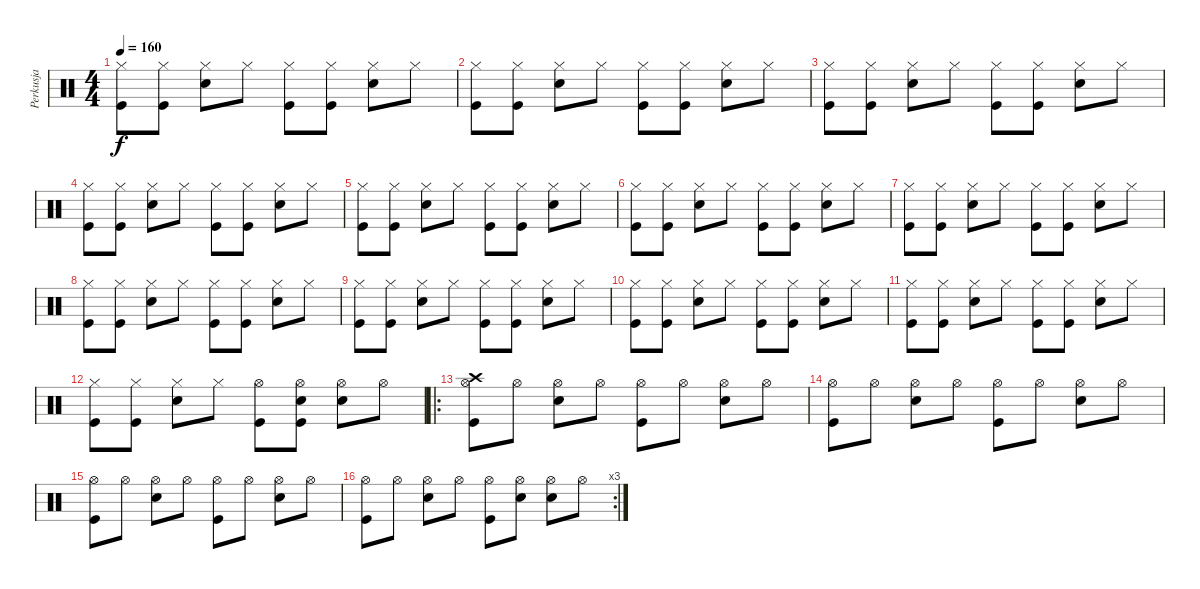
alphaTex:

\track ("Perkusja" "Perkusja") {instrument percussion}
\staff {score}
\articulation defaults
\ts (4 4)
\tempo 160
\clef neutral
\ks c
("Hi-Hat (closed)" "Kick (hit)").8{dy f} ("Hi-Hat (closed)" "Kick (hit)").8 ("Hi-Hat (closed)" "Electric Snare (hit)").8 "Hi-Hat (closed)".8 ("Hi-Hat (closed)" "Kick (hit)").8 ("Hi-Hat (closed)" "Kick (hit)").8 ("Hi-Hat (closed)" "Electric Snare (hit)").8 "Hi-Hat (closed)".8 |
("Hi-Hat (closed)" "Kick (hit)").8 ("Hi-Hat (closed)" "Kick (hit)").8 ("Hi-Hat (closed)" "Electric Snare (hit)").8 "Hi-Hat (closed)".8 ("Hi-Hat (closed)" "Kick (hit)").8 ("Hi-Hat (closed)" "Kick (hit)").8 ("Hi-Hat (closed)" "Electric Snare (hit)").8 "Hi-Hat (closed)".8 |
("Hi-Hat (closed)" "Kick (hit)").8 ("Hi-Hat (closed)" "Kick (hit)").8 ("Hi-Hat (closed)" "Electric Snare (hit)").8 "Hi-Hat (closed)".8 ("Hi-Hat (closed)" "Kick (hit)").8 ("Hi-Hat (closed)" "Kick (hit)").8 ("Hi-Hat (closed)" "Electric Snare (hit)").8 "Hi-Hat (closed)".8 |
("Hi-Hat (closed)" "Kick (hit)").8 ("Hi-Hat (closed)" "Kick (hit)").8 ("Hi-Hat (closed)" "Electric Snare (hit)").8 "Hi-Hat (closed)".8 ("Hi-Hat (closed)" "Kick (hit)").8 ("Hi-Hat (closed)" "Kick (hit)").8 ("Hi-Hat (closed)" "Electric Snare (hit)").8 "Hi-Hat (closed)".8 |
("Hi-Hat (closed)" "Kick (hit)").8 ("Hi-Hat (closed)" "Kick (hit)").8 ("Hi-Hat (closed)" "Electric Snare (hit)").8 "Hi-Hat (closed)".8 ("Hi-Hat (closed)" "Kick (hit)").8 ("Hi-Hat (closed)" "Kick (hit)").8 ("Hi-Hat (closed)" "Electric Snare (hit)").8 "Hi-Hat (closed)".8 |
("Hi-Hat (closed)" "Kick (hit)").8 ("Hi-Hat (closed)" "Kick (hit)").8 ("Hi-Hat (closed)" "Electric Snare (hit)").8 "Hi-Hat (closed)".8 ("Hi-Hat (closed)" "Kick (hit)").8 ("Hi-Hat (closed)" "Kick (hit)").8 ("Hi-Hat (closed)" "Electric Snare (hit)").8 "Hi-Hat (closed)".8 |
("Hi-Hat (closed)" "Kick (hit)").8 ("Hi-Hat (closed)" "Kick (hit)").8 ("Hi-Hat (closed)" "Electric Snare (hit)").8 "Hi-Hat (closed)".8 ("Hi-Hat (closed)" "Kick (hit)").8 ("Hi-Hat (closed)" "Kick (hit)").8 ("Hi-Hat (closed)" "Electric Snare (hit)").8 "Hi-Hat (closed)".8 |
("Hi-Hat (closed)" "Kick (hit)").8 ("Hi-Hat (closed)" "Kick (hit)").8 ("Hi-Hat (closed)" "Electric Snare (hit)").8 "Hi-Hat (closed)".8 ("Hi-Hat (closed)" "Kick (hit)").8 ("Hi-Hat (closed)" "Kick (hit)").8 ("Hi-Hat (closed)" "Electric Snare (hit)").8 "Hi-Hat (closed)".8 |
("Hi-Hat (closed)" "Kick (hit)").8 ("Hi-Hat (closed)" "Kick (hit)").8 ("Hi-Hat (closed)" "Electric Snare (hit)").8 "Hi-Hat (closed)".8 ("Hi-Hat (closed)" "Kick (hit)").8 ("Hi-Hat (closed)" "Kick (hit)").8 ("Hi-Hat (closed)" "Electric Snare (hit)").8 "Hi-Hat (closed)".8 |
("Hi-Hat (closed)" "Kick (hit)").8 ("Hi-Hat (closed)" "Kick (hit)").8 ("Hi-Hat (closed)" "Electric Snare (hit)").8 "Hi-Hat (closed)".8 ("Hi-Hat (closed)" "Kick (hit)").8 ("Hi-Hat (closed)" "Kick (hit)").8 ("Hi-Hat (closed)" "Electric Snare (hit)").8 "Hi-Hat (closed)".8 |
("Hi-Hat (closed)" "Kick (hit)").8 ("Hi-Hat (closed)" "Kick (hit)").8 ("Hi-Hat (closed)" "Electric Snare (hit)").8 "Hi-Hat (closed)".8 ("Hi-Hat (closed)" "Kick (hit)").8 ("Hi-Hat (closed)" "Kick (hit)").8 ("Hi-Hat (closed)" "Electric Snare (hit)").8 "Hi-Hat (closed)".8 |
("Hi-Hat (closed)" "Kick (hit)").8 ("Hi-Hat (closed)" "Kick (hit)").8 ("Hi-Hat (closed)" "Electric Snare (hit)").8 "Hi-Hat (closed)".8 ("Hi-Hat (open)" "Kick (hit)").8 ("Hi-Hat (open)" "Electric Snare (hit)" "Kick (hit)").8 ("Hi-Hat (open)" "Electric Snare (hit)").8 "Hi-Hat (open)".8 |
\ro
("Hi-Hat (open)" "Crash high (hit)" "Kick (hit)").8 "Hi-Hat (open)".8 ("Hi-Hat (open)" "Electric Snare (hit)").8 "Hi-Hat (open)".8 ("Hi-Hat (open)" "Kick (hit)").8 "Hi-Hat (open)".8 ("Hi-Hat (open)" "Electric Snare (hit)").8 "Hi-Hat (open)".8 |
("Hi-Hat (open)" "Kick (hit)").8 "Hi-Hat (open)".8 ("Hi-Hat (open)" "Electric Snare (hit)").8 "Hi-Hat (open)".8 ("Hi-Hat (open)" "Kick (hit)").8 "Hi-Hat (open)".8 ("Hi-Hat (open)" "Electric Snare (hit)").8 "Hi-Hat (open)".8 |
("Hi-Hat (open)" "Kick (hit)").8 "Hi-Hat (open)".8 ("Hi-Hat (open)" "Electric Snare (hit)").8 "Hi-Hat (open)".8 ("Hi-Hat (open)" "Kick (hit)").8 "Hi-Hat (open)".8 ("Hi-Hat (open)" "Electric Snare (hit)").8 "Hi-Hat (open)".8 |
\rc 3
("Hi-Hat (open)" "Kick (hit)").8 "Hi-Hat (open)".8 ("Hi-Hat (open)" "Electric Snare (hit)").8 "Hi-Hat (open)".8 ("Hi-Hat (open)" "Kick (hit)").8 ("Hi-Hat (open)" "Electric Snare (hit)").8 ("Hi-Hat (open)" "Electric Snare (hit)").8 "Hi-Hat (open)".8
